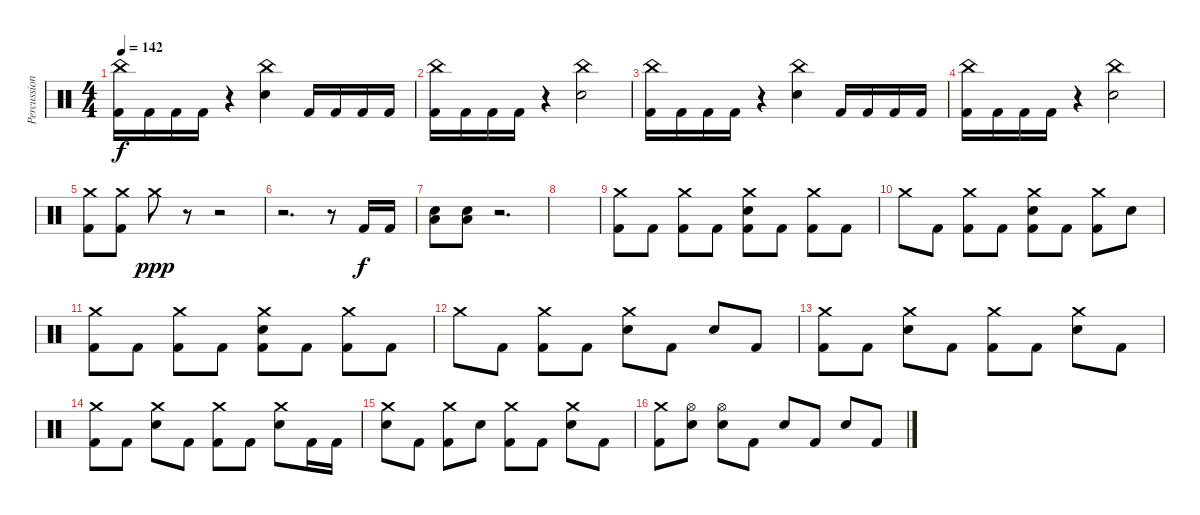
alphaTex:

\track ("Percussion" "Percussion") {instrument percussion}
\staff {score}
\articulation defaults
\ts (4 4)
\tempo 142
\clef neutral
\ks c
("China (hit)" "Kick (hit) 2").16{dy f} "Kick (hit) 2".16 "Kick (hit) 2".16 "Kick (hit) 2".16 r.4 ("China (hit)" "Electric Snare (hit)").4 "Kick (hit) 2".16 "Kick (hit) 2".16 "Kick (hit) 2".16 "Kick (hit) 2".16 |
("China (hit)" "Kick (hit) 2").16 "Kick (hit) 2".16 "Kick (hit) 2".16 "Kick (hit) 2".16 r.4 ("China (hit)" "Electric Snare (hit)").2 |
("China (hit)" "Kick (hit) 2").16 "Kick (hit) 2".16 "Kick (hit) 2".16 "Kick (hit) 2".16 r.4 ("China (hit)" "Electric Snare (hit)").4 "Kick (hit) 2".16 "Kick (hit) 2".16 "Kick (hit) 2".16 "Kick (hit) 2".16 |
("China (hit)" "Kick (hit) 2").16 "Kick (hit) 2".16 "Kick (hit) 2".16 "Kick (hit) 2".16 r.4 ("China (hit)" "Electric Snare (hit)").2 |
("Crash medium (hit)" "Kick (hit) 2").8 ("Crash medium (hit)" "Kick (hit) 2").8 "Crash medium (hit)".8{dy ppp} r.8 r.2 |
r.2{d} r.8 "Kick (hit) 2".16{dy f} "Kick (hit) 2".16 |
("Low Floor Tom (hit)" "Electric Snare (hit)").8 ("Low Floor Tom (hit)" "Electric Snare (hit)").8 r.2{d} |
|
("Crash medium (hit)" "Kick (hit) 2").8 "Kick (hit) 2".8 ("Crash medium (hit)" "Kick (hit) 2").8 "Kick (hit) 2".8 ("Crash medium (hit)" "Electric Snare (hit)" "Kick (hit) 2").8 "Kick (hit) 2".8 ("Crash medium (hit)" "Kick (hit) 2").8 "Kick (hit) 2".8 |
"Crash medium (hit)".8 "Kick (hit) 2".8 ("Crash medium (hit)" "Kick (hit) 2").8 "Kick (hit) 2".8 ("Crash medium (hit)" "Electric Snare (hit)" "Kick (hit) 2").8 "Kick (hit) 2".8 ("Crash medium (hit)" "Kick (hit) 2").8 "Electric Snare (hit)".8 |
("Crash medium (hit)" "Kick (hit) 2").8 "Kick (hit) 2".8 ("Crash medium (hit)" "Kick (hit) 2").8 "Kick (hit) 2".8 ("Crash medium (hit)" "Electric Snare (hit)" "Kick (hit) 2").8 "Kick (hit) 2".8 ("Crash medium (hit)" "Kick (hit) 2").8 "Kick (hit) 2".8 |
"Crash medium (hit)".8 "Kick (hit) 2".8 ("Crash medium (hit)" "Kick (hit) 2").8 "Kick (hit) 2".8 ("Crash medium (hit)" "Electric Snare (hit)").8 "Kick (hit) 2".8 "Electric Snare (hit)".8 "Kick (hit) 2".8 |
("Crash medium (hit)" "Kick (hit) 2").8 "Kick (hit) 2".8 ("Crash medium (hit)" "Electric Snare (hit)").8 "Kick (hit) 2".8 ("Crash medium (hit)" "Kick (hit) 2").8 "Kick (hit) 2".8 ("Crash medium (hit)" "Electric Snare (hit)").8 "Kick (hit) 2".8 |
("Crash medium (hit)" "Kick (hit) 2").8 "Kick (hit) 2".8 ("Crash medium (hit)" "Electric Snare (hit)").8 "Kick (hit) 2".8 ("Crash medium (hit)" "Kick (hit) 2").8 "Kick (hit) 2".8 ("Crash medium (hit)" "Electric Snare (hit)").8 "Kick (hit) 2".16 "Kick (hit) 2".16 |
("Crash medium (hit)" "Electric Snare (hit)").8 "Kick (hit) 2".8 ("Crash medium (hit)" "Kick (hit) 2").8 "Electric Snare (hit)".8 ("Crash medium (hit)" "Kick (hit) 2").8 "Kick (hit) 2".8 ("Crash medium (hit)" "Electric Snare (hit)").8 "Kick (hit) 2".8 |
("Crash medium (hit)" "Kick (hit) 2").8 ("Hi-Hat (open)" "Electric Snare (hit)").8 ("Hi-Hat (open)" "Electric Snare (hit)").8 "Kick (hit) 2".8 "Electric Snare (hit)".8 "Kick (hit) 2".8 "Electric Snare (hit)".8 "Kick (hit) 2".8
